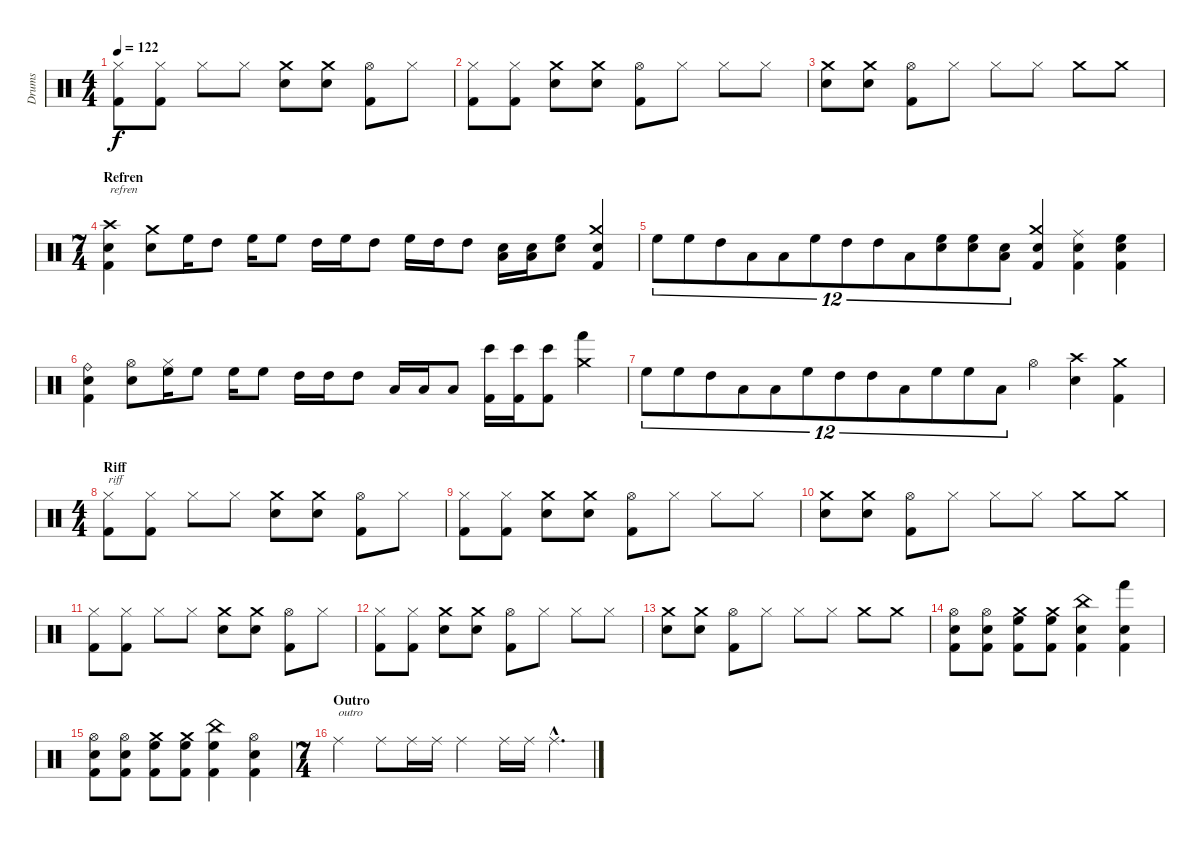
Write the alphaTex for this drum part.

\track ("Drums" "Drums") {instrument percussion}
\staff {score}
\articulation defaults
\ts (4 4)
\tempo 122
\clef neutral
\ks c
("Hi-Hat (closed)" "Kick (hit) 2").8{dy f} ("Hi-Hat (closed)" "Kick (hit) 2").8 "Hi-Hat (closed)".8 "Hi-Hat (closed)".8 ("Crash medium (hit)" "Snare (hit) 2").8 ("Crash medium (hit)" "Snare (hit) 2").8 ("Hi-Hat (open)" "Kick (hit) 2").8 "Hi-Hat (closed)".8 |
("Hi-Hat (closed)" "Kick (hit) 2").8 ("Hi-Hat (closed)" "Kick (hit) 2").8 ("Crash medium (hit)" "Snare (hit) 2").8 ("Crash medium (hit)" "Snare (hit) 2").8 ("Hi-Hat (open)" "Kick (hit) 2").8 "Hi-Hat (closed)".8 "Hi-Hat (closed)".8 "Hi-Hat (closed)".8 |
("Crash medium (hit)" "Snare (hit) 2").8 ("Crash medium (hit)" "Snare (hit) 2").8 ("Hi-Hat (open)" "Kick (hit) 2").8 "Hi-Hat (closed)".8 "Hi-Hat (closed)".8 "Hi-Hat (closed)".8 "Crash medium (hit)".8 "Crash medium (hit)".8 |
\ts (7 4)
\section ("" "Refren")
("Crash high (hit)" "Snare (hit) 2" "Kick (hit) 2").4{txt "refren"} ("Crash medium (hit)" "Snare (hit) 2").8 "High Floor Tom (hit)".16 "High Tom (hit)".8 "High Floor Tom (hit)".16 "High Floor Tom (hit)".8 "High Tom (hit)".16 "High Floor Tom (hit)".16 "High Tom (hit)".8 "High Floor Tom (hit)".16 "High Tom (hit)".16 "High Tom (hit)".8 ("Low Tom (hit)" "Snare (hit) 2").16 ("Low Tom (hit)" "Snare (hit) 2").16 ("High Floor Tom (hit)" "Snare (hit) 2").8 ("Crash medium (hit)" "Snare (hit) 2" "Kick (hit) 2").4 |
"High Floor Tom (hit)".8{tu (12 8)} "High Floor Tom (hit)".8{tu (12 8)} "High Tom (hit)".8{tu (12 8)} "Low Tom (hit)".8{tu (12 8)} "Low Tom (hit)".8{tu (12 8)} "High Floor Tom (hit)".8{tu (12 8)} "High Tom (hit)".8{tu (12 8)} "High Tom (hit)".8{tu (12 8)} "Low Tom (hit)".8{tu (12 8)} ("High Floor Tom (hit)" "Snare (hit) 2").8{tu (12 8)} ("High Floor Tom (hit)" "Snare (hit) 2").8{tu (12 8)} ("Low Tom (hit)" "Snare (hit) 2").8{tu (12 8)} ("Crash medium (hit)" "Snare (hit) 2" "Kick (hit) 2").4 ("Ride (middle)" "Snare (hit) 2" "Kick (hit) 2").4 ("High Floor Tom (hit)" "Snare (hit) 2" "Kick (hit) 2").4 |
("Ride (bell)" "Snare (hit) 2" "Kick (hit) 2").4 ("Hi-Hat (open)" "Snare (hit) 2").8 ("Hi-Hat (closed)" "High Floor Tom (hit)").16 "High Floor Tom (hit)".8 "High Floor Tom (hit)".16 "High Floor Tom (hit)".8 "High Tom (hit)".16 "High Tom (hit)".16 "High Tom (hit)".8 "Low Tom (hit)".16 "Low Tom (hit)".16 "Low Tom (hit)".8 ("Bongo High (hit)" "Kick (hit) 2").16 ("Bongo High (hit)" "Kick (hit) 2").16 ("Bongo High (hit)" "Kick (hit) 2").8 ("Crash medium (hit)" "Hand (hit)").4 |
"High Floor Tom (hit)".8{tu (12 8)} "High Floor Tom (hit)".8{tu (12 8)} "High Tom (hit)".8{tu (12 8)} "Low Tom (hit)".8{tu (12 8)} "Low Tom (hit)".8{tu (12 8)} "High Floor Tom (hit)".8{tu (12 8)} "High Tom (hit)".8{tu (12 8)} "High Tom (hit)".8{tu (12 8)} "Low Tom (hit)".8{tu (12 8)} "High Floor Tom (hit)".8{tu (12 8)} "High Floor Tom (hit)".8{tu (12 8)} "Low Tom (hit)".8{tu (12 8)} "Hi-Hat (open)".4 ("Crash high (hit)" "Snare (hit) 2").4 ("Crash medium (hit)" "Kick (hit) 2").4 |
\ts (4 4)
\section ("" "Riff")
("Hi-Hat (closed)" "Kick (hit) 2").8{txt "riff"} ("Hi-Hat (closed)" "Kick (hit) 2").8 "Hi-Hat (closed)".8 "Hi-Hat (closed)".8 ("Crash medium (hit)" "Snare (hit) 2").8 ("Crash medium (hit)" "Snare (hit) 2").8 ("Hi-Hat (open)" "Kick (hit) 2").8 "Hi-Hat (closed)".8 |
("Hi-Hat (closed)" "Kick (hit) 2").8 ("Hi-Hat (closed)" "Kick (hit) 2").8 ("Crash medium (hit)" "Snare (hit) 2").8 ("Crash medium (hit)" "Snare (hit) 2").8 ("Hi-Hat (open)" "Kick (hit) 2").8 "Hi-Hat (closed)".8 "Hi-Hat (closed)".8 "Hi-Hat (closed)".8 |
("Crash medium (hit)" "Snare (hit) 2").8 ("Crash medium (hit)" "Snare (hit) 2").8 ("Hi-Hat (open)" "Kick (hit) 2").8 "Hi-Hat (closed)".8 "Hi-Hat (closed)".8 "Hi-Hat (closed)".8 "Crash medium (hit)".8 "Crash medium (hit)".8 |
("Hi-Hat (closed)" "Kick (hit) 2").8 ("Hi-Hat (closed)" "Kick (hit) 2").8 "Hi-Hat (closed)".8 "Hi-Hat (closed)".8 ("Crash medium (hit)" "Snare (hit) 2").8 ("Crash medium (hit)" "Snare (hit) 2").8 ("Hi-Hat (open)" "Kick (hit) 2").8 "Hi-Hat (closed)".8 |
("Hi-Hat (closed)" "Kick (hit) 2").8 ("Hi-Hat (closed)" "Kick (hit) 2").8 ("Crash medium (hit)" "Snare (hit) 2").8 ("Crash medium (hit)" "Snare (hit) 2").8 ("Hi-Hat (open)" "Kick (hit) 2").8 "Hi-Hat (closed)".8 "Hi-Hat (closed)".8 "Hi-Hat (closed)".8 |
("Crash medium (hit)" "Snare (hit) 2").8 ("Crash medium (hit)" "Snare (hit) 2").8 ("Hi-Hat (open)" "Kick (hit) 2").8 "Hi-Hat (closed)".8 "Hi-Hat (closed)".8 "Hi-Hat (closed)".8 "Crash medium (hit)".8 "Crash medium (hit)".8 |
("Hi-Hat (open)" "Snare (hit) 2" "Kick (hit) 2").8 ("Hi-Hat (open)" "Snare (hit) 2" "Kick (hit) 2").8 ("Crash medium (hit)" "High Floor Tom (hit)" "Kick (hit) 2").8 ("Crash medium (hit)" "High Floor Tom (hit)" "Kick (hit) 2").8 ("China (hit)" "Snare (hit) 2" "Kick (hit) 2").4 ("Hand (hit)" "Snare (hit) 2" "Kick (hit) 2").4 |
("Hi-Hat (open)" "Snare (hit) 2" "Kick (hit) 2").8 ("Hi-Hat (open)" "Snare (hit) 2" "Kick (hit) 2").8 ("Crash medium (hit)" "High Floor Tom (hit)" "Kick (hit) 2").8 ("Crash medium (hit)" "High Floor Tom (hit)" "Kick (hit) 2").8 ("China (hit)" "High Floor Tom (hit)" "Kick (hit) 2").4 ("Hi-Hat (open)" "Snare (hit) 2" "Kick (hit) 2").4 |
\ts (7 4)
\section ("" "Outro")
"Ride (middle)".2{txt "outro"} "Ride (middle)".8 "Ride (middle)".16 "Ride (middle)".16 "Ride (middle)".2 "Ride (middle)".16 "Ride (middle)".16 "Ride (middle)"{hac}.4{d}
